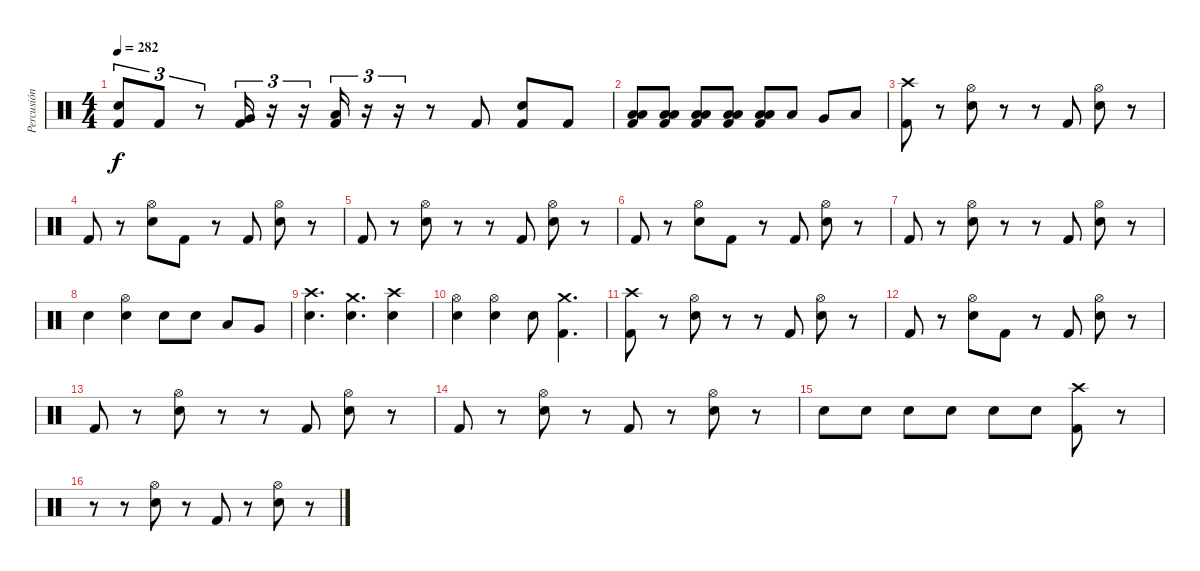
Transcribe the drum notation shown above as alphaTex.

\track ("Percusión" "Percusión") {instrument percussion}
\staff {score}
\articulation defaults
\ts (4 4)
\tempo 282
\clef neutral
\ks c
("Kick (hit) 2" "Snare (hit) 2").8{tu (3 2) dy f} "Kick (hit) 2".8{tu (3 2)} r.8{tu (3 2)} ("Kick (hit) 2" "Very Low Tom (hit)").16{tu (3 2)} r.16{tu (3 2)} r.16{tu (3 2)} ("Kick (hit) 2" "Low Tom (hit)").16{tu (3 2)} r.16{tu (3 2)} r.16{tu (3 2)} r.8 "Kick (hit) 2".8 ("Kick (hit) 2" "Snare (hit) 2").8 "Kick (hit) 2".8 |
("Kick (hit) 2" "Low Floor Tom (hit)" "Low Tom (hit)").8 ("Kick (hit) 2" "Low Floor Tom (hit)" "Low Tom (hit)").8 ("Kick (hit) 2" "Low Floor Tom (hit)" "Low Tom (hit)").8 ("Kick (hit) 2" "Low Floor Tom (hit)" "Low Tom (hit)").8 ("Kick (hit) 2" "Low Floor Tom (hit)" "Low Tom (hit)").8 "Low Tom (hit)".8 "Very Low Tom (hit)".8 "Low Floor Tom (hit)".8 |
("Kick (hit) 2" "Crash high (hit)").8 r.8 ("Snare (hit) 2" "Hi-Hat (open)").8 r.8 r.8 "Kick (hit) 2".8 ("Snare (hit) 2" "Hi-Hat (open)").8 r.8 |
"Kick (hit) 2".8 r.8 ("Snare (hit) 2" "Hi-Hat (open)").8 "Kick (hit) 2".8 r.8 "Kick (hit) 2".8 ("Snare (hit) 2" "Hi-Hat (open)").8 r.8 |
"Kick (hit) 2".8 r.8 ("Snare (hit) 2" "Hi-Hat (open)").8 r.8 r.8 "Kick (hit) 2".8 ("Snare (hit) 2" "Hi-Hat (open)").8 r.8 |
"Kick (hit) 2".8 r.8 ("Snare (hit) 2" "Hi-Hat (open)").8 "Kick (hit) 2".8 r.8 "Kick (hit) 2".8 ("Snare (hit) 2" "Hi-Hat (open)").8 r.8 |
"Kick (hit) 2".8 r.8 ("Snare (hit) 2" "Hi-Hat (open)").8 r.8 r.8 "Kick (hit) 2".8 ("Snare (hit) 2" "Hi-Hat (open)").8 r.8 |
"Snare (hit) 2".4 ("Snare (hit) 2" "Hi-Hat (open)").4 "Snare (hit) 2".8 "Snare (hit) 2".8 "Low Tom (hit)".8 "Very Low Tom (hit)".8 |
("Snare (hit) 2" "Crash high (hit)").4{d} ("Snare (hit) 2" "Crash medium (hit)").4{d} ("Snare (hit) 2" "Crash high (hit)").4 |
("Snare (hit) 2" "Hi-Hat (open)").4 ("Snare (hit) 2" "Hi-Hat (open)").4 "Snare (hit) 2".8 ("Kick (hit) 2" "Crash medium (hit)").4{d} |
("Kick (hit) 2" "Crash high (hit)").8 r.8 ("Snare (hit) 2" "Hi-Hat (open)").8 r.8 r.8 "Kick (hit) 2".8 ("Snare (hit) 2" "Hi-Hat (open)").8 r.8 |
"Kick (hit) 2".8 r.8 ("Snare (hit) 2" "Hi-Hat (open)").8 "Kick (hit) 2".8 r.8 "Kick (hit) 2".8 ("Snare (hit) 2" "Hi-Hat (open)").8 r.8 |
"Kick (hit) 2".8 r.8 ("Snare (hit) 2" "Hi-Hat (open)").8 r.8 r.8 "Kick (hit) 2".8 ("Snare (hit) 2" "Hi-Hat (open)").8 r.8 |
"Kick (hit) 2".8 r.8 ("Snare (hit) 2" "Hi-Hat (open)").8 r.8 "Kick (hit) 2".8 r.8 ("Snare (hit) 2" "Hi-Hat (open)").8 r.8 |
"Snare (hit) 2".8 "Snare (hit) 2".8 "Snare (hit) 2".8 "Snare (hit) 2".8 "Snare (hit) 2".8 "Snare (hit) 2".8 ("Kick (hit) 2" "Crash high (hit)").8 r.8 |
r.8 r.8 ("Snare (hit) 2" "Hi-Hat (open)").8 r.8 "Kick (hit) 2".8 r.8 ("Snare (hit) 2" "Hi-Hat (open)").8 r.8
